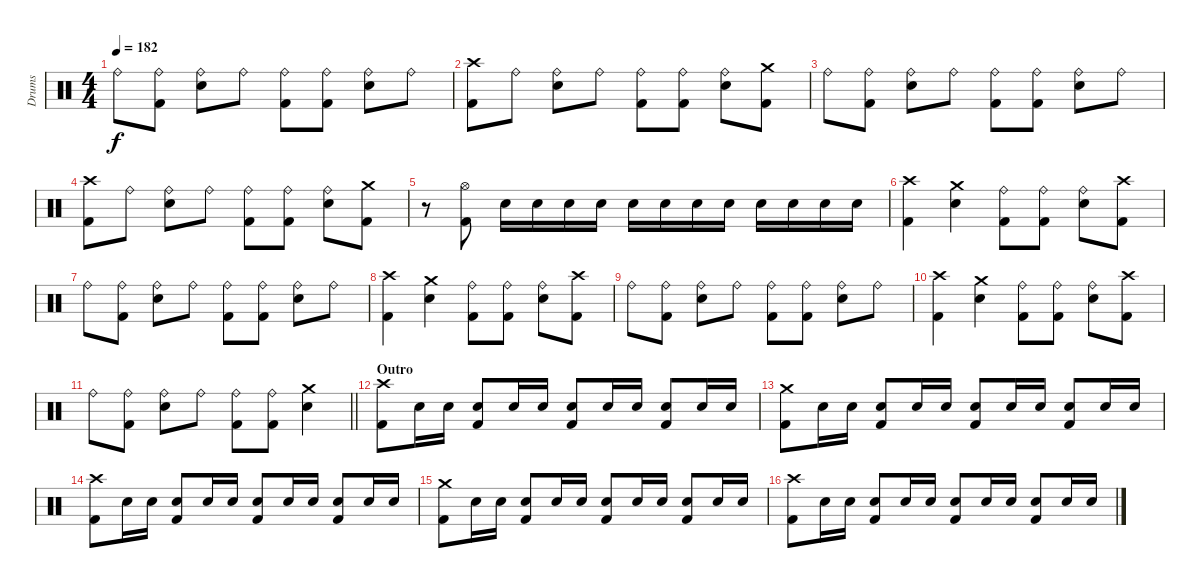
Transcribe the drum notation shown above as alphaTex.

\track ("Drums" "Drums") {instrument percussion}
\staff {score}
\articulation defaults
\ts (4 4)
\tempo 182
\clef neutral
\ks c "Ride (bell)".8{dy f}
("Ride (bell)" "Kick (hit) 2").8 ("Ride (bell)" "Snare (hit) 2").8 "Ride (bell)".8 ("Ride (bell)" "Kick (hit) 2").8 ("Ride (bell)" "Kick (hit) 2").8 ("Ride (bell)" "Snare (hit) 2").8 "Ride (bell)".8 |
("Crash high (hit)" "Kick (hit) 2").8 "Ride (bell)".8 ("Ride (bell)" "Snare (hit) 2").8 "Ride (bell)".8 ("Ride (bell)" "Kick (hit) 2").8 ("Ride (bell)" "Kick (hit) 2").8 ("Ride (bell)" "Snare (hit) 2").8 ("Crash medium (hit)" "Kick (hit) 2").8 |
"Ride (bell)".8 ("Ride (bell)" "Kick (hit) 2").8 ("Ride (bell)" "Snare (hit) 2").8 "Ride (bell)".8 ("Ride (bell)" "Kick (hit) 2").8 ("Ride (bell)" "Kick (hit) 2").8 ("Ride (bell)" "Snare (hit) 2").8 "Ride (bell)".8 |
("Crash high (hit)" "Kick (hit) 2").8 "Ride (bell)".8 ("Ride (bell)" "Snare (hit) 2").8 "Ride (bell)".8 ("Ride (bell)" "Kick (hit) 2").8 ("Ride (bell)" "Kick (hit) 2").8 ("Ride (bell)" "Snare (hit) 2").8 ("Crash medium (hit)" "Kick (hit) 2").8 |
r.8 ("Hi-Hat (open)" "Kick (hit) 2").8 "Snare (hit) 2".16 "Snare (hit) 2".16 "Snare (hit) 2".16 "Snare (hit) 2".16 "Snare (hit) 2".16 "Snare (hit) 2".16 "Snare (hit) 2".16 "Snare (hit) 2".16 "Snare (hit) 2".16 "Snare (hit) 2".16 "Snare (hit) 2".16 "Snare (hit) 2".16 |
("Crash high (hit)" "Kick (hit) 2").4 ("Crash medium (hit)" "Snare (hit) 2").4 ("Ride (bell)" "Kick (hit) 2").8 ("Ride (bell)" "Kick (hit) 2").8 ("Ride (bell)" "Snare (hit) 2").8 ("Crash high (hit)" "Kick (hit) 2").8 |
"Ride (bell)".8 ("Ride (bell)" "Kick (hit) 2").8 ("Ride (bell)" "Snare (hit) 2").8 "Ride (bell)".8 ("Ride (bell)" "Kick (hit) 2").8 ("Ride (bell)" "Kick (hit) 2").8 ("Ride (bell)" "Snare (hit) 2").8 "Ride (bell)".8 |
("Crash high (hit)" "Kick (hit) 2").4 ("Crash medium (hit)" "Snare (hit) 2").4 ("Ride (bell)" "Kick (hit) 2").8 ("Ride (bell)" "Kick (hit) 2").8 ("Ride (bell)" "Snare (hit) 2").8 ("Crash high (hit)" "Kick (hit) 2").8 |
"Ride (bell)".8 ("Ride (bell)" "Kick (hit) 2").8 ("Ride (bell)" "Snare (hit) 2").8 "Ride (bell)".8 ("Ride (bell)" "Kick (hit) 2").8 ("Ride (bell)" "Kick (hit) 2").8 ("Ride (bell)" "Snare (hit) 2").8 "Ride (bell)".8 |
("Crash high (hit)" "Kick (hit) 2").4 ("Crash medium (hit)" "Snare (hit) 2").4 ("Ride (bell)" "Kick (hit) 2").8 ("Ride (bell)" "Kick (hit) 2").8 ("Ride (bell)" "Snare (hit) 2").8 ("Crash high (hit)" "Kick (hit) 2").8 |
\barLineRight lightlight "Ride (bell)".8
("Ride (bell)" "Kick (hit) 2").8 ("Ride (bell)" "Snare (hit) 2").8 "Ride (bell)".8 ("Ride (bell)" "Kick (hit) 2").8 ("Ride (bell)" "Kick (hit) 2").8 ("Crash medium (hit)" "Snare (hit) 2").4 |
\section ("" "Outro")
("Crash high (hit)" "Kick (hit) 2").8 "Snare (hit) 2".16 "Snare (hit) 2".16 ("Snare (hit) 2" "Kick (hit) 2").8 "Snare (hit) 2".16 "Snare (hit) 2".16 ("Snare (hit) 2" "Kick (hit) 2").8 "Snare (hit) 2".16 "Snare (hit) 2".16 ("Snare (hit) 2" "Kick (hit) 2").8 "Snare (hit) 2".16 "Snare (hit) 2".16 |
("Crash medium (hit)" "Kick (hit) 2").8 "Snare (hit) 2".16 "Snare (hit) 2".16 ("Snare (hit) 2" "Kick (hit) 2").8 "Snare (hit) 2".16 "Snare (hit) 2".16 ("Snare (hit) 2" "Kick (hit) 2").8 "Snare (hit) 2".16 "Snare (hit) 2".16 ("Snare (hit) 2" "Kick (hit) 2").8 "Snare (hit) 2".16 "Snare (hit) 2".16 |
("Crash high (hit)" "Kick (hit) 2").8 "Snare (hit) 2".16 "Snare (hit) 2".16 ("Snare (hit) 2" "Kick (hit) 2").8 "Snare (hit) 2".16 "Snare (hit) 2".16 ("Snare (hit) 2" "Kick (hit) 2").8 "Snare (hit) 2".16 "Snare (hit) 2".16 ("Snare (hit) 2" "Kick (hit) 2").8 "Snare (hit) 2".16 "Snare (hit) 2".16 |
("Crash medium (hit)" "Kick (hit) 2").8 "Snare (hit) 2".16 "Snare (hit) 2".16 ("Snare (hit) 2" "Kick (hit) 2").8 "Snare (hit) 2".16 "Snare (hit) 2".16 ("Snare (hit) 2" "Kick (hit) 2").8 "Snare (hit) 2".16 "Snare (hit) 2".16 ("Snare (hit) 2" "Kick (hit) 2").8 "Snare (hit) 2".16 "Snare (hit) 2".16 |
("Crash high (hit)" "Kick (hit) 2").8 "Snare (hit) 2".16 "Snare (hit) 2".16 ("Snare (hit) 2" "Kick (hit) 2").8 "Snare (hit) 2".16 "Snare (hit) 2".16 ("Snare (hit) 2" "Kick (hit) 2").8 "Snare (hit) 2".16 "Snare (hit) 2".16 ("Snare (hit) 2" "Kick (hit) 2").8 "Snare (hit) 2".16 "Snare (hit) 2".16
